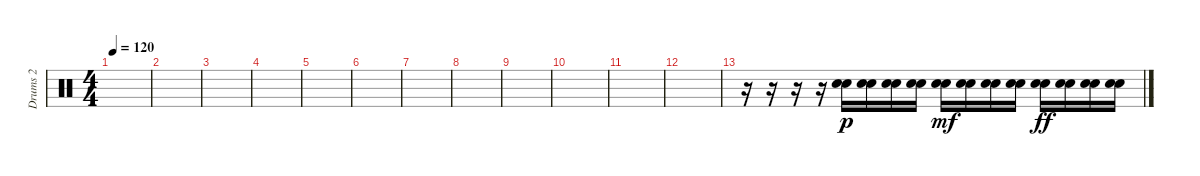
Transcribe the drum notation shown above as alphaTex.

\track ("Drums 2" "Drums 2") {instrument percussion}
\staff {score}
\articulation defaults
\ts (4 4)
\tempo 120
\clef neutral
\ks c
|
|
|
|
|
|
|
|
|
|
|
|
r.16 r.16 r.16 r.16 ("Snare (hit) 2" "Snare (hit)").16{dy p} ("Snare (hit) 2" "Snare (hit)").16 ("Snare (hit) 2" "Snare (hit)").16 ("Snare (hit) 2" "Snare (hit)").16 ("Snare (hit) 2" "Snare (hit)").16{dy mf} ("Snare (hit) 2" "Snare (hit)").16 ("Snare (hit) 2" "Snare (hit)").16 ("Snare (hit) 2" "Snare (hit)").16 ("Snare (hit) 2" "Snare (hit)").16{dy ff} ("Snare (hit) 2" "Snare (hit)").16 ("Snare (hit) 2" "Snare (hit)").16 ("Snare (hit) 2" "Snare (hit)").16
